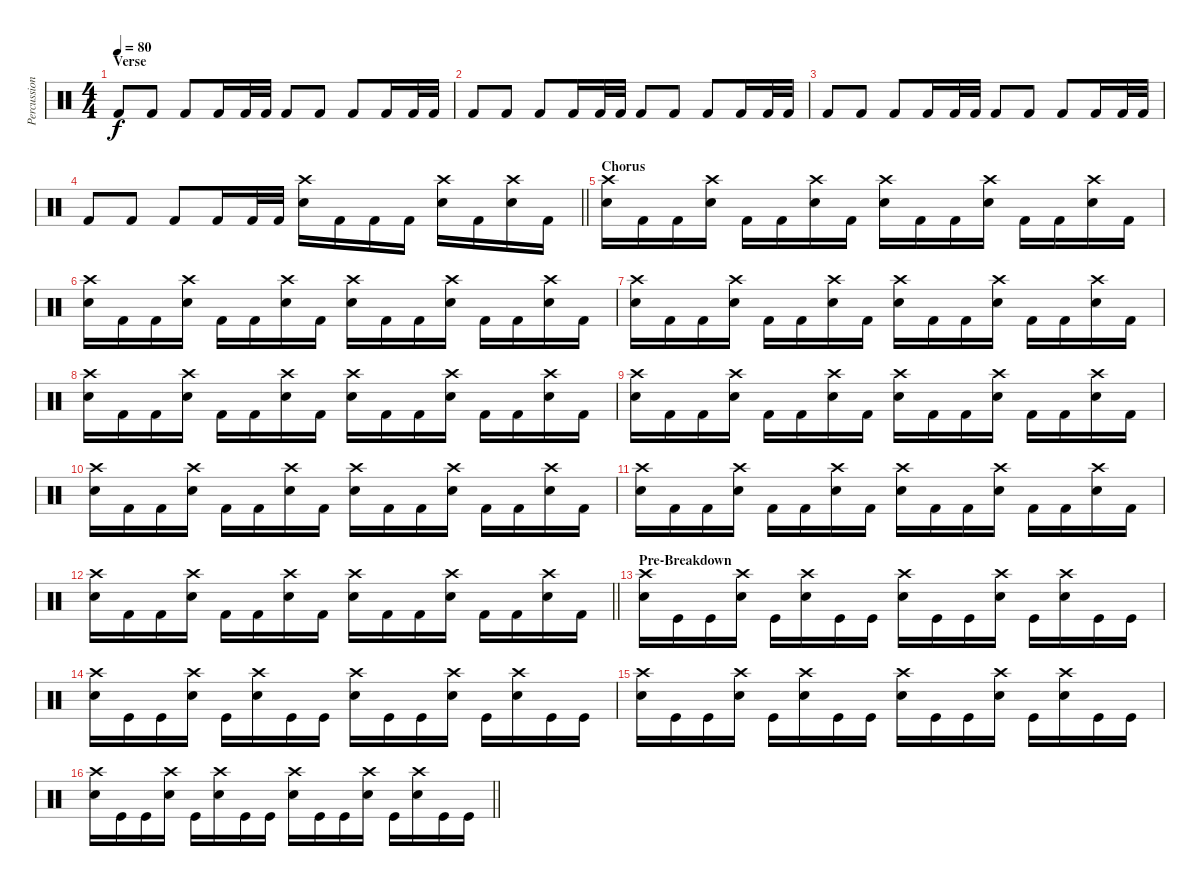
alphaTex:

\track ("Percussion" "Percussion") {instrument percussion}
\staff {score}
\articulation defaults
\ts (4 4)
\section ("" "Verse")
\tempo 80
\clef neutral
\ks c "Kick (hit) 2".8{dy f} "Kick (hit) 2".8 "Kick (hit) 2".8 "Kick (hit) 2".16 "Kick (hit) 2".32 "Kick (hit) 2".32 "Kick (hit) 2".8 "Kick (hit) 2".8 "Kick (hit) 2".8 "Kick (hit) 2".16 "Kick (hit) 2".32 "Kick (hit) 2".32
|
"Kick (hit) 2".8 "Kick (hit) 2".8 "Kick (hit) 2".8 "Kick (hit) 2".16 "Kick (hit) 2".32 "Kick (hit) 2".32 "Kick (hit) 2".8 "Kick (hit) 2".8 "Kick (hit) 2".8 "Kick (hit) 2".16 "Kick (hit) 2".32 "Kick (hit) 2".32 |
"Kick (hit) 2".8 "Kick (hit) 2".8 "Kick (hit) 2".8 "Kick (hit) 2".16 "Kick (hit) 2".32 "Kick (hit) 2".32 "Kick (hit) 2".8 "Kick (hit) 2".8 "Kick (hit) 2".8 "Kick (hit) 2".16 "Kick (hit) 2".32 "Kick (hit) 2".32 |
\barLineRight lightlight "Kick (hit) 2".8 "Kick (hit) 2".8 "Kick (hit) 2".8 "Kick (hit) 2".16 "Kick (hit) 2".32 "Kick (hit) 2".32
("Crash high (hit)" "Electric Snare (hit)").16 "Kick (hit) 2".16 "Kick (hit) 2".16 "Kick (hit) 2".16 ("Crash high (hit)" "Electric Snare (hit)").16 "Kick (hit) 2".16 ("Crash high (hit)" "Electric Snare (hit)").16 "Kick (hit) 2".16 |
\section ("" "Chorus")
("Crash high (hit)" "Electric Snare (hit)").16 "Kick (hit) 2".16 "Kick (hit) 2".16 ("Crash high (hit)" "Electric Snare (hit)").16 "Kick (hit) 2".16 "Kick (hit) 2".16 ("Crash high (hit)" "Electric Snare (hit)").16 "Kick (hit) 2".16 ("Crash high (hit)" "Electric Snare (hit)").16 "Kick (hit) 2".16 "Kick (hit) 2".16 ("Crash high (hit)" "Electric Snare (hit)").16 "Kick (hit) 2".16 "Kick (hit) 2".16 ("Crash high (hit)" "Electric Snare (hit)").16 "Kick (hit) 2".16 |
("Crash high (hit)" "Electric Snare (hit)").16 "Kick (hit) 2".16 "Kick (hit) 2".16 ("Crash high (hit)" "Electric Snare (hit)").16 "Kick (hit) 2".16 "Kick (hit) 2".16 ("Crash high (hit)" "Electric Snare (hit)").16 "Kick (hit) 2".16 ("Crash high (hit)" "Electric Snare (hit)").16 "Kick (hit) 2".16 "Kick (hit) 2".16 ("Crash high (hit)" "Electric Snare (hit)").16 "Kick (hit) 2".16 "Kick (hit) 2".16 ("Crash high (hit)" "Electric Snare (hit)").16 "Kick (hit) 2".16 |
("Crash high (hit)" "Electric Snare (hit)").16 "Kick (hit) 2".16 "Kick (hit) 2".16 ("Crash high (hit)" "Electric Snare (hit)").16 "Kick (hit) 2".16 "Kick (hit) 2".16 ("Crash high (hit)" "Electric Snare (hit)").16 "Kick (hit) 2".16 ("Crash high (hit)" "Electric Snare (hit)").16 "Kick (hit) 2".16 "Kick (hit) 2".16 ("Crash high (hit)" "Electric Snare (hit)").16 "Kick (hit) 2".16 "Kick (hit) 2".16 ("Crash high (hit)" "Electric Snare (hit)").16 "Kick (hit) 2".16 |
("Crash high (hit)" "Electric Snare (hit)").16 "Kick (hit) 2".16 "Kick (hit) 2".16 ("Crash high (hit)" "Electric Snare (hit)").16 "Kick (hit) 2".16 "Kick (hit) 2".16 ("Crash high (hit)" "Electric Snare (hit)").16 "Kick (hit) 2".16 ("Crash high (hit)" "Electric Snare (hit)").16 "Kick (hit) 2".16 "Kick (hit) 2".16 ("Crash high (hit)" "Electric Snare (hit)").16 "Kick (hit) 2".16 "Kick (hit) 2".16 ("Crash high (hit)" "Electric Snare (hit)").16 "Kick (hit) 2".16 |
("Crash high (hit)" "Electric Snare (hit)").16 "Kick (hit) 2".16 "Kick (hit) 2".16 ("Crash high (hit)" "Electric Snare (hit)").16 "Kick (hit) 2".16 "Kick (hit) 2".16 ("Crash high (hit)" "Electric Snare (hit)").16 "Kick (hit) 2".16 ("Crash high (hit)" "Electric Snare (hit)").16 "Kick (hit) 2".16 "Kick (hit) 2".16 ("Crash high (hit)" "Electric Snare (hit)").16 "Kick (hit) 2".16 "Kick (hit) 2".16 ("Crash high (hit)" "Electric Snare (hit)").16 "Kick (hit) 2".16 |
("Crash high (hit)" "Electric Snare (hit)").16 "Kick (hit) 2".16 "Kick (hit) 2".16 ("Crash high (hit)" "Electric Snare (hit)").16 "Kick (hit) 2".16 "Kick (hit) 2".16 ("Crash high (hit)" "Electric Snare (hit)").16 "Kick (hit) 2".16 ("Crash high (hit)" "Electric Snare (hit)").16 "Kick (hit) 2".16 "Kick (hit) 2".16 ("Crash high (hit)" "Electric Snare (hit)").16 "Kick (hit) 2".16 "Kick (hit) 2".16 ("Crash high (hit)" "Electric Snare (hit)").16 "Kick (hit) 2".16 |
("Crash high (hit)" "Electric Snare (hit)").16 "Kick (hit) 2".16 "Kick (hit) 2".16 ("Crash high (hit)" "Electric Snare (hit)").16 "Kick (hit) 2".16 "Kick (hit) 2".16 ("Crash high (hit)" "Electric Snare (hit)").16 "Kick (hit) 2".16 ("Crash high (hit)" "Electric Snare (hit)").16 "Kick (hit) 2".16 "Kick (hit) 2".16 ("Crash high (hit)" "Electric Snare (hit)").16 "Kick (hit) 2".16 "Kick (hit) 2".16 ("Crash high (hit)" "Electric Snare (hit)").16 "Kick (hit) 2".16 |
\barLineRight lightlight
("Crash high (hit)" "Electric Snare (hit)").16 "Kick (hit) 2".16 "Kick (hit) 2".16 ("Crash high (hit)" "Electric Snare (hit)").16 "Kick (hit) 2".16 "Kick (hit) 2".16 ("Crash high (hit)" "Electric Snare (hit)").16 "Kick (hit) 2".16 ("Crash high (hit)" "Electric Snare (hit)").16 "Kick (hit) 2".16 "Kick (hit) 2".16 ("Crash high (hit)" "Electric Snare (hit)").16 "Kick (hit) 2".16 "Kick (hit) 2".16 ("Crash high (hit)" "Electric Snare (hit)").16 "Kick (hit) 2".16 |
\section ("" "Pre-Breakdown")
("Crash high (hit)" "Electric Snare (hit)").16 "Kick (hit)".16 "Kick (hit)".16 ("Crash high (hit)" "Electric Snare (hit)").16 "Kick (hit)".16 ("Crash high (hit)" "Electric Snare (hit)").16 "Kick (hit)".16 "Kick (hit)".16 ("Crash high (hit)" "Electric Snare (hit)").16 "Kick (hit)".16 "Kick (hit)".16 ("Crash high (hit)" "Electric Snare (hit)").16 "Kick (hit)".16 ("Crash high (hit)" "Electric Snare (hit)").16 "Kick (hit)".16 "Kick (hit)".16 |
("Crash high (hit)" "Electric Snare (hit)").16 "Kick (hit)".16 "Kick (hit)".16 ("Crash high (hit)" "Electric Snare (hit)").16 "Kick (hit)".16 ("Crash high (hit)" "Electric Snare (hit)").16 "Kick (hit)".16 "Kick (hit)".16 ("Crash high (hit)" "Electric Snare (hit)").16 "Kick (hit)".16 "Kick (hit)".16 ("Crash high (hit)" "Electric Snare (hit)").16 "Kick (hit)".16 ("Crash high (hit)" "Electric Snare (hit)").16 "Kick (hit)".16 "Kick (hit)".16 |
("Crash high (hit)" "Electric Snare (hit)").16 "Kick (hit)".16 "Kick (hit)".16 ("Crash high (hit)" "Electric Snare (hit)").16 "Kick (hit)".16 ("Crash high (hit)" "Electric Snare (hit)").16 "Kick (hit)".16 "Kick (hit)".16 ("Crash high (hit)" "Electric Snare (hit)").16 "Kick (hit)".16 "Kick (hit)".16 ("Crash high (hit)" "Electric Snare (hit)").16 "Kick (hit)".16 ("Crash high (hit)" "Electric Snare (hit)").16 "Kick (hit)".16 "Kick (hit)".16 |
\barLineRight lightlight
("Crash high (hit)" "Electric Snare (hit)").16 "Kick (hit)".16 "Kick (hit)".16 ("Crash high (hit)" "Electric Snare (hit)").16 "Kick (hit)".16 ("Crash high (hit)" "Electric Snare (hit)").16 "Kick (hit)".16 "Kick (hit)".16 ("Crash high (hit)" "Electric Snare (hit)").16 "Kick (hit)".16 "Kick (hit)".16 ("Crash high (hit)" "Electric Snare (hit)").16 "Kick (hit)".16 ("Crash high (hit)" "Electric Snare (hit)").16 "Kick (hit)".16 "Kick (hit)".16
